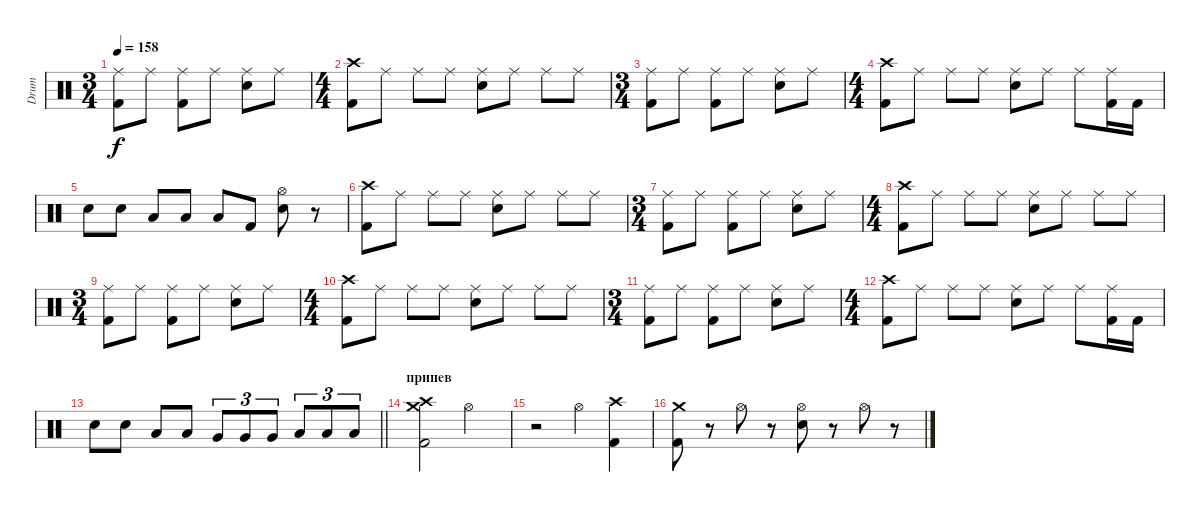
\track ("Drum" "Drum") {instrument percussion}
\staff {score}
\articulation defaults
\ts (3 4)
\tempo 158
\clef neutral
\ks c
("Ride (middle)" "Kick (hit) 2").8{dy f} "Ride (middle)".8 ("Ride (middle)" "Kick (hit) 2").8 "Ride (middle)".8 ("Ride (middle)" "Snare (hit) 2").8 "Ride (middle)".8 |
\ts (4 4)
("Crash high (hit)" "Kick (hit) 2").8 "Ride (middle)".8 "Ride (middle)".8 "Ride (middle)".8 ("Ride (middle)" "Snare (hit) 2").8 "Ride (middle)".8 "Ride (middle)".8 "Ride (middle)".8 |
\ts (3 4)
("Ride (middle)" "Kick (hit) 2").8 "Ride (middle)".8 ("Ride (middle)" "Kick (hit) 2").8 "Ride (middle)".8 ("Ride (middle)" "Snare (hit) 2").8 "Ride (middle)".8 |
\ts (4 4)
("Crash high (hit)" "Kick (hit) 2").8 "Ride (middle)".8 "Ride (middle)".8 "Ride (middle)".8 ("Ride (middle)" "Snare (hit) 2").8 "Ride (middle)".8 "Ride (middle)".8 ("Ride (middle)" "Kick (hit) 2").16 "Kick (hit) 2".16 |
"Snare (hit) 2".8 "Snare (hit) 2".8 "Low Tom (hit)".8 "Low Tom (hit)".8 "Low Floor Tom (hit)".8 "Kick (hit) 2".8 ("Hi-Hat (open)" "Snare (hit) 2").8 r.8 |
("Crash high (hit)" "Kick (hit) 2").8 "Ride (middle)".8 "Ride (middle)".8 "Ride (middle)".8 ("Ride (middle)" "Snare (hit) 2").8 "Ride (middle)".8 "Ride (middle)".8 "Ride (middle)".8 |
\ts (3 4)
("Ride (middle)" "Kick (hit) 2").8 "Ride (middle)".8 ("Ride (middle)" "Kick (hit) 2").8 "Ride (middle)".8 ("Ride (middle)" "Snare (hit) 2").8 "Ride (middle)".8 |
\ts (4 4)
("Crash high (hit)" "Kick (hit) 2").8 "Ride (middle)".8 "Ride (middle)".8 "Ride (middle)".8 ("Ride (middle)" "Snare (hit) 2").8 "Ride (middle)".8 "Ride (middle)".8 "Ride (middle)".8 |
\ts (3 4)
("Ride (middle)" "Kick (hit) 2").8 "Ride (middle)".8 ("Ride (middle)" "Kick (hit) 2").8 "Ride (middle)".8 ("Ride (middle)" "Snare (hit) 2").8 "Ride (middle)".8 |
\ts (4 4)
("Crash high (hit)" "Kick (hit) 2").8 "Ride (middle)".8 "Ride (middle)".8 "Ride (middle)".8 ("Ride (middle)" "Snare (hit) 2").8 "Ride (middle)".8 "Ride (middle)".8 "Ride (middle)".8 |
\ts (3 4)
("Ride (middle)" "Kick (hit) 2").8 "Ride (middle)".8 ("Ride (middle)" "Kick (hit) 2").8 "Ride (middle)".8 ("Ride (middle)" "Snare (hit) 2").8 "Ride (middle)".8 |
\ts (4 4)
("Crash high (hit)" "Kick (hit) 2").8 "Ride (middle)".8 "Ride (middle)".8 "Ride (middle)".8 ("Ride (middle)" "Snare (hit) 2").8 "Ride (middle)".8 "Ride (middle)".8 ("Ride (middle)" "Kick (hit) 2").16 "Kick (hit) 2".16 |
\barLineRight lightlight "Snare (hit) 2".8 "Snare (hit) 2".8 "Low Tom (hit)".8 "Low Tom (hit)".8 "Very Low Tom (hit)".8{tu (3 2)} "Very Low Tom (hit)".8{tu (3 2)} "Very Low Tom (hit)".8{tu (3 2)} "Low Floor Tom (hit)".8{tu (3 2)} "Low Floor Tom (hit)".8{tu (3 2)} "Low Floor Tom (hit)".8{tu (3 2)}
|
\section ("" "припев")
("Crash high (hit)" "Crash medium (hit)" "Kick (hit) 2").2 "Hi-Hat (open)".2 |
r.2 "Hi-Hat (open)".4 ("Crash high (hit)" "Kick (hit) 2").4 |
("Crash medium (hit)" "Kick (hit) 2").8 r.8 "Hi-Hat (open)".8 r.8 ("Hi-Hat (open)" "Snare (hit) 2").8 r.8 "Hi-Hat (open)".8 r.8
